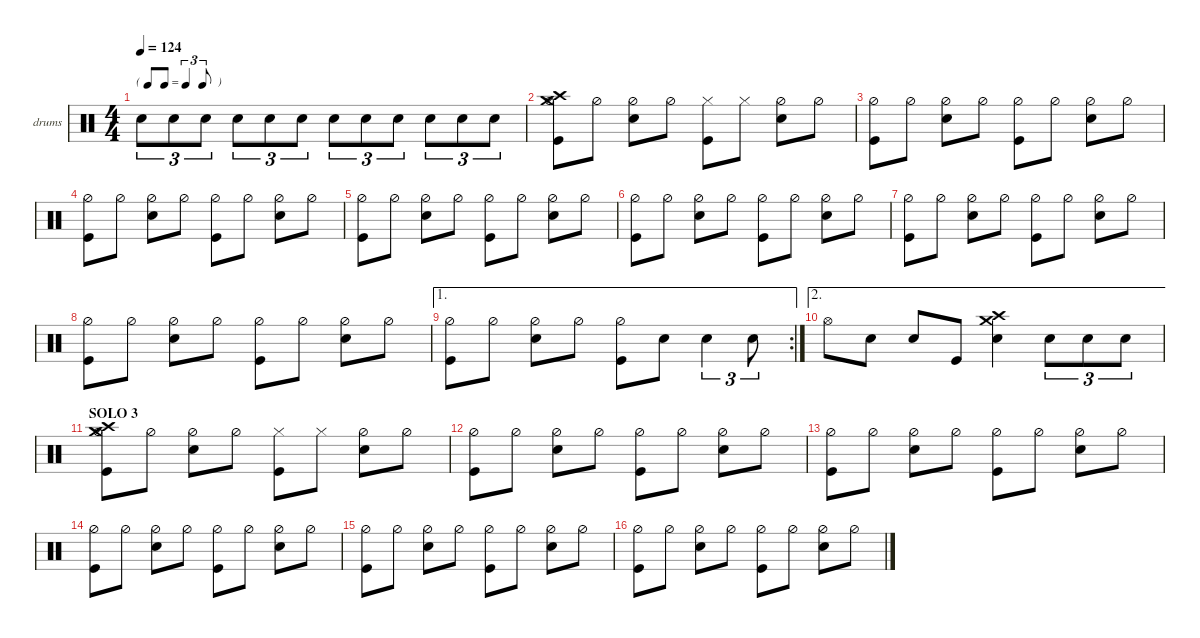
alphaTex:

\defaultSystemsLayout 4
\hideDynamics
\bracketExtendMode nobrackets
\firstSystemTrackNameOrientation horizontal
\otherSystemsTrackNameOrientation horizontal
\track ("drums" "drums") {instrument percussion}
\staff {score}
\articulation defaults
\ts (4 4)
\tf triplet8th
\tempo 124
\clef neutral
\scale
1.06392
\ks aminor "Snare (hit) 2".8{tu (3 2) dy pp} "Snare (hit) 2".8{tu (3 2)} "Snare (hit) 2".8{tu (3 2)} "Snare (hit) 2".8{tu (3 2) dy p} "Snare (hit) 2".8{tu (3 2)} "Snare (hit) 2".8{tu (3 2)} "Snare (hit) 2".8{tu (3 2) dy mp} "Snare (hit) 2".8{tu (3 2)} "Snare (hit) 2".8{tu (3 2)} "Snare (hit) 2".8{tu (3 2) dy mf} "Snare (hit) 2".8{tu (3 2)} "Snare (hit) 2".8{tu (3 2)}
|
\scale
0.978695 ("Kick (hit)" "Hi-Hat (half)" "Crash medium (hit)" "Crash high (hit)").8 "Hi-Hat (half)".8 ("Hi-Hat (half)" "Snare (hit) 2").8 "Hi-Hat (half)".8 ("Kick (hit)" "Hi-Hat (closed)").8 "Hi-Hat (closed)".8 ("Hi-Hat (half)" "Snare (hit) 2").8 "Hi-Hat (half)".8 |
\scale
0.978695 ("Kick (hit)" "Hi-Hat (half)").8 "Hi-Hat (half)".8 ("Hi-Hat (half)" "Snare (hit) 2").8 "Hi-Hat (half)".8 ("Kick (hit)" "Hi-Hat (half)").8 "Hi-Hat (half)".8 ("Hi-Hat (half)" "Snare (hit) 2").8 "Hi-Hat (half)".8 |
\scale
0.978695 ("Kick (hit)" "Hi-Hat (half)").8 "Hi-Hat (half)".8 ("Hi-Hat (half)" "Snare (hit) 2").8 "Hi-Hat (half)".8 ("Kick (hit)" "Hi-Hat (half)").8 "Hi-Hat (half)".8 ("Hi-Hat (half)" "Snare (hit) 2").8 "Hi-Hat (half)".8 |
\scale
1.06392 ("Kick (hit)" "Hi-Hat (half)").8 "Hi-Hat (half)".8 ("Hi-Hat (half)" "Snare (hit) 2").8 "Hi-Hat (half)".8 ("Kick (hit)" "Hi-Hat (half)").8 "Hi-Hat (half)".8 ("Hi-Hat (half)" "Snare (hit) 2").8 "Hi-Hat (half)".8 |
\scale
0.978695 ("Kick (hit)" "Hi-Hat (half)").8 "Hi-Hat (half)".8 ("Hi-Hat (half)" "Snare (hit) 2").8 "Hi-Hat (half)".8 ("Kick (hit)" "Hi-Hat (half)").8 "Hi-Hat (half)".8 ("Hi-Hat (half)" "Snare (hit) 2").8 "Hi-Hat (half)".8 |
\scale
0.978695 ("Kick (hit)" "Hi-Hat (half)").8 "Hi-Hat (half)".8 ("Hi-Hat (half)" "Snare (hit) 2").8 "Hi-Hat (half)".8 ("Kick (hit)" "Hi-Hat (half)").8 "Hi-Hat (half)".8 ("Hi-Hat (half)" "Snare (hit) 2").8 "Hi-Hat (half)".8 |
\scale
0.978695 ("Kick (hit)" "Hi-Hat (half)").8 "Hi-Hat (half)".8 ("Hi-Hat (half)" "Snare (hit) 2").8 "Hi-Hat (half)".8 ("Kick (hit)" "Hi-Hat (half)").8 "Hi-Hat (half)".8 ("Hi-Hat (half)" "Snare (hit) 2").8 "Hi-Hat (half)".8 |
\ae 1
\rc 2
\scale
1.09417 ("Kick (hit)" "Hi-Hat (half)").8 "Hi-Hat (half)".8 ("Hi-Hat (half)" "Snare (hit) 2").8 "Hi-Hat (half)".8 ("Kick (hit)" "Hi-Hat (half)").8 "Snare (hit) 2".8 "Snare (hit) 2".4{tu (3 2)} "Snare (hit) 2".8{tu (3 2)} |
\ae 2
\scale
0.9804 "Hi-Hat (open)".8 "Snare (hit) 2".8 "Snare (hit) 2".8 "Kick (hit)".8 ("Snare (hit) 2" "Crash high (hit)" "Crash medium (hit)").4 "Snare (hit) 2".8{tu (3 2) dy p} "Snare (hit) 2".8{tu (3 2) dy mp} "Snare (hit) 2".8{tu (3 2) dy mf} |
\section ("" "SOLO 3")
\scale
0.962716 ("Kick (hit)" "Hi-Hat (half)" "Crash medium (hit)" "Crash high (hit)").8 "Hi-Hat (half)".8 ("Hi-Hat (half)" "Snare (hit) 2").8 "Hi-Hat (half)".8 ("Kick (hit)" "Hi-Hat (closed)").8 "Hi-Hat (closed)".8 ("Hi-Hat (half)" "Snare (hit) 2").8 "Hi-Hat (half)".8 |
\scale
0.962716 ("Kick (hit)" "Hi-Hat (half)").8 "Hi-Hat (half)".8 ("Hi-Hat (half)" "Snare (hit) 2").8 "Hi-Hat (half)".8 ("Kick (hit)" "Hi-Hat (half)").8 "Hi-Hat (half)".8 ("Hi-Hat (half)" "Snare (hit) 2").8 "Hi-Hat (half)".8 |
\scale
1.06392 ("Kick (hit)" "Hi-Hat (half)").8 "Hi-Hat (half)".8 ("Hi-Hat (half)" "Snare (hit) 2").8 "Hi-Hat (half)".8 ("Kick (hit)" "Hi-Hat (half)").8 "Hi-Hat (half)".8 ("Hi-Hat (half)" "Snare (hit) 2").8 "Hi-Hat (half)".8 |
\scale
0.978695 ("Kick (hit)" "Hi-Hat (half)").8 "Hi-Hat (half)".8 ("Hi-Hat (half)" "Snare (hit) 2").8 "Hi-Hat (half)".8 ("Kick (hit)" "Hi-Hat (half)").8 "Hi-Hat (half)".8 ("Hi-Hat (half)" "Snare (hit) 2").8 "Hi-Hat (half)".8 |
\scale
0.978695 ("Kick (hit)" "Hi-Hat (half)").8 "Hi-Hat (half)".8 ("Hi-Hat (half)" "Snare (hit) 2").8 "Hi-Hat (half)".8 ("Kick (hit)" "Hi-Hat (half)").8 "Hi-Hat (half)".8 ("Hi-Hat (half)" "Snare (hit) 2").8 "Hi-Hat (half)".8 |
\scale
0.978695 ("Kick (hit)" "Hi-Hat (half)").8 "Hi-Hat (half)".8 ("Hi-Hat (half)" "Snare (hit) 2").8 "Hi-Hat (half)".8 ("Kick (hit)" "Hi-Hat (half)").8 "Hi-Hat (half)".8 ("Hi-Hat (half)" "Snare (hit) 2").8 "Hi-Hat (half)".8
